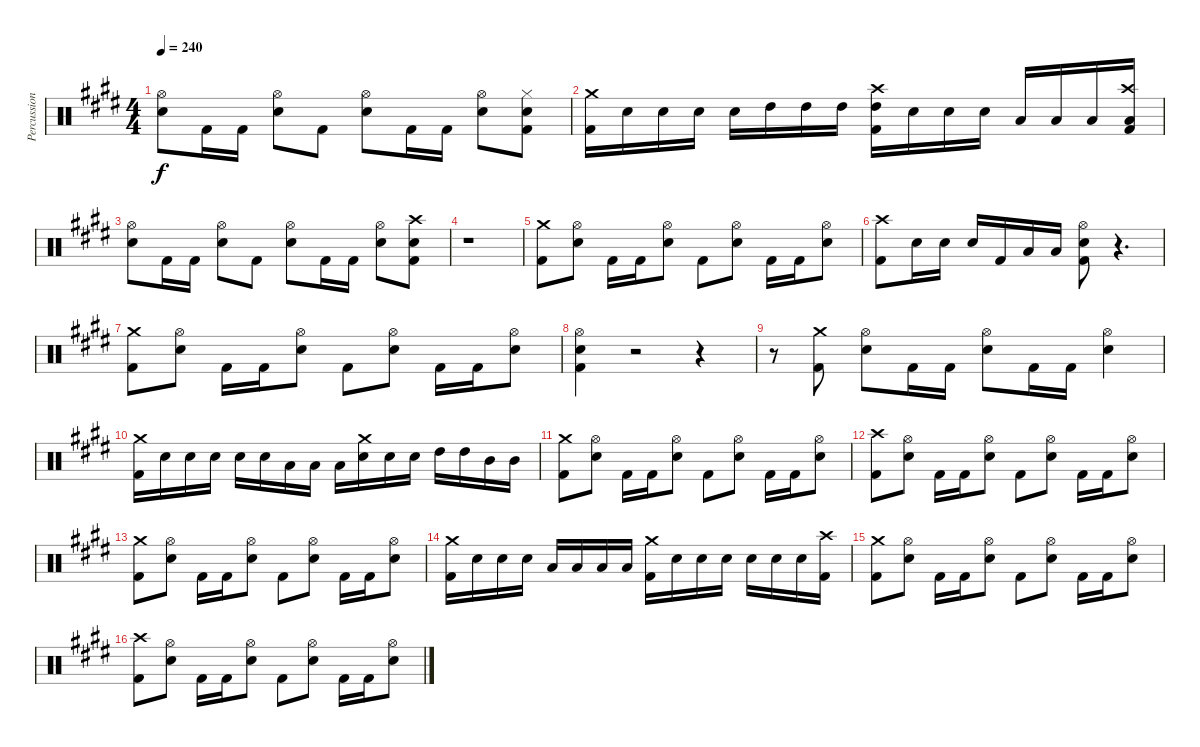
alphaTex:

\track ("Percussion" "Percussion") {instrument percussion}
\staff {score}
\articulation defaults
\ts (4 4)
\tempo 240
\clef neutral
\ks e
("Hi-Hat (open)" "Snare (hit) 2").8{dy f} "Kick (hit) 2".16 "Kick (hit) 2".16 ("Hi-Hat (open)" "Snare (hit) 2").8 "Kick (hit) 2".8 ("Hi-Hat (open)" "Snare (hit) 2").8 "Kick (hit) 2".16 "Kick (hit) 2".16 ("Hi-Hat (open)" "Snare (hit) 2").8 ("Hi-Hat (closed)" "Snare (hit) 2" "Kick (hit) 2").8 |
("Crash medium (hit)" "Kick (hit) 2").16 "Snare (hit) 2".16 "Snare (hit) 2".16 "Snare (hit) 2".16 "Snare (hit) 2".16 "High Tom (hit)".16 "High Tom (hit)".16 "High Tom (hit)".16 ("Crash high (hit)" "High Tom (hit)" "Kick (hit) 2").16 "Snare (hit) 2".16 "Snare (hit) 2".16 "Snare (hit) 2".16 "Low Tom (hit)".16 "Low Tom (hit)".16 "Low Tom (hit)".16 ("Crash high (hit)" "Low Tom (hit)" "Kick (hit) 2").16 |
("Hi-Hat (open)" "Snare (hit) 2").8 "Kick (hit) 2".16 "Kick (hit) 2".16 ("Hi-Hat (open)" "Snare (hit) 2").8 "Kick (hit) 2".8 ("Hi-Hat (open)" "Snare (hit) 2").8 "Kick (hit) 2".16 "Kick (hit) 2".16 ("Hi-Hat (open)" "Snare (hit) 2").8 ("Crash high (hit)" "Snare (hit) 2" "Kick (hit) 2").8 |
r.1 |
("Crash medium (hit)" "Kick (hit) 2").8 ("Hi-Hat (open)" "Snare (hit) 2").8 "Kick (hit) 2".16 "Kick (hit) 2".16 ("Hi-Hat (open)" "Snare (hit) 2").8 "Kick (hit) 2".8 ("Hi-Hat (open)" "Snare (hit) 2").8 "Kick (hit) 2".16 "Kick (hit) 2".16 ("Hi-Hat (open)" "Snare (hit) 2").8 |
("Crash high (hit)" "Kick (hit) 2").8 "Snare (hit) 2".16 "Snare (hit) 2".16 "Snare (hit) 2".16 "Kick (hit) 2".16 "Low Floor Tom (hit)".16 "Low Floor Tom (hit)".16 ("Hi-Hat (open)" "Snare (hit) 2" "Kick (hit) 2").8 r.4{d} |
("Crash medium (hit)" "Kick (hit) 2").8 ("Hi-Hat (open)" "Snare (hit) 2").8 "Kick (hit) 2".16 "Kick (hit) 2".16 ("Hi-Hat (open)" "Snare (hit) 2").8 "Kick (hit) 2".8 ("Hi-Hat (open)" "Snare (hit) 2").8 "Kick (hit) 2".16 "Kick (hit) 2".16 ("Hi-Hat (open)" "Snare (hit) 2").8 |
("Hi-Hat (open)" "Snare (hit) 2" "Kick (hit) 2").4 r.2 r.4 |
r.8 ("Crash medium (hit)" "Kick (hit) 2").8 ("Hi-Hat (open)" "Snare (hit) 2").8 "Kick (hit) 2".16 "Kick (hit) 2".16 ("Hi-Hat (open)" "Snare (hit) 2").8 "Kick (hit) 2".16 "Kick (hit) 2".16 ("Hi-Hat (open)" "Snare (hit) 2").4 |
("Crash medium (hit)" "Kick (hit) 2").16 "Snare (hit) 2".16 "Snare (hit) 2".16 "Snare (hit) 2".16 "Snare (hit) 2".16 "Snare (hit) 2".16 "Low Floor Tom (hit)".16 "Low Floor Tom (hit)".16 "Low Floor Tom (hit)".16 ("Crash medium (hit)" "Snare (hit) 2").16 "Snare (hit) 2".16 "Snare (hit) 2".16 "High Tom (hit)".16 "High Tom (hit)".16 "Mid Tom (hit)".16 "Mid Tom (hit)".16 |
("Crash medium (hit)" "Kick (hit) 2").8 ("Hi-Hat (open)" "Snare (hit) 2").8 "Kick (hit) 2".16 "Kick (hit) 2".16 ("Hi-Hat (open)" "Snare (hit) 2").8 "Kick (hit) 2".8 ("Hi-Hat (open)" "Snare (hit) 2").8 "Kick (hit) 2".16 "Kick (hit) 2".16 ("Hi-Hat (open)" "Snare (hit) 2").8 |
("Crash high (hit)" "Kick (hit) 2").8 ("Hi-Hat (open)" "Snare (hit) 2").8 "Kick (hit) 2".16 "Kick (hit) 2".16 ("Hi-Hat (open)" "Snare (hit) 2").8 "Kick (hit) 2".8 ("Hi-Hat (open)" "Snare (hit) 2").8 "Kick (hit) 2".16 "Kick (hit) 2".16 ("Hi-Hat (open)" "Snare (hit) 2").8 |
("Crash medium (hit)" "Kick (hit) 2").8 ("Hi-Hat (open)" "Snare (hit) 2").8 "Kick (hit) 2".16 "Kick (hit) 2".16 ("Hi-Hat (open)" "Snare (hit) 2").8 "Kick (hit) 2".8 ("Hi-Hat (open)" "Snare (hit) 2").8 "Kick (hit) 2".16 "Kick (hit) 2".16 ("Hi-Hat (open)" "Snare (hit) 2").8 |
("Crash medium (hit)" "Kick (hit) 2").16 "Snare (hit) 2".16 "Snare (hit) 2".16 "Snare (hit) 2".16 "Low Tom (hit)".16 "Low Tom (hit)".16 "Low Floor Tom (hit)".16 "Low Floor Tom (hit)".16 ("Crash medium (hit)" "Kick (hit) 2").16 "Snare (hit) 2".16 "Snare (hit) 2".16 "Snare (hit) 2".16 "Snare (hit) 2".16 "Snare (hit) 2".16 "Snare (hit) 2".16 ("Crash high (hit)" "Kick (hit) 2").16 |
("Crash medium (hit)" "Kick (hit) 2").8 ("Hi-Hat (open)" "Snare (hit) 2").8 "Kick (hit) 2".16 "Kick (hit) 2".16 ("Hi-Hat (open)" "Snare (hit) 2").8 "Kick (hit) 2".8 ("Hi-Hat (open)" "Snare (hit) 2").8 "Kick (hit) 2".16 "Kick (hit) 2".16 ("Hi-Hat (open)" "Snare (hit) 2").8 |
("Crash high (hit)" "Kick (hit) 2").8 ("Hi-Hat (open)" "Snare (hit) 2").8 "Kick (hit) 2".16 "Kick (hit) 2".16 ("Hi-Hat (open)" "Snare (hit) 2").8 "Kick (hit) 2".8 ("Hi-Hat (open)" "Snare (hit) 2").8 "Kick (hit) 2".16 "Kick (hit) 2".16 ("Hi-Hat (open)" "Snare (hit) 2").8
